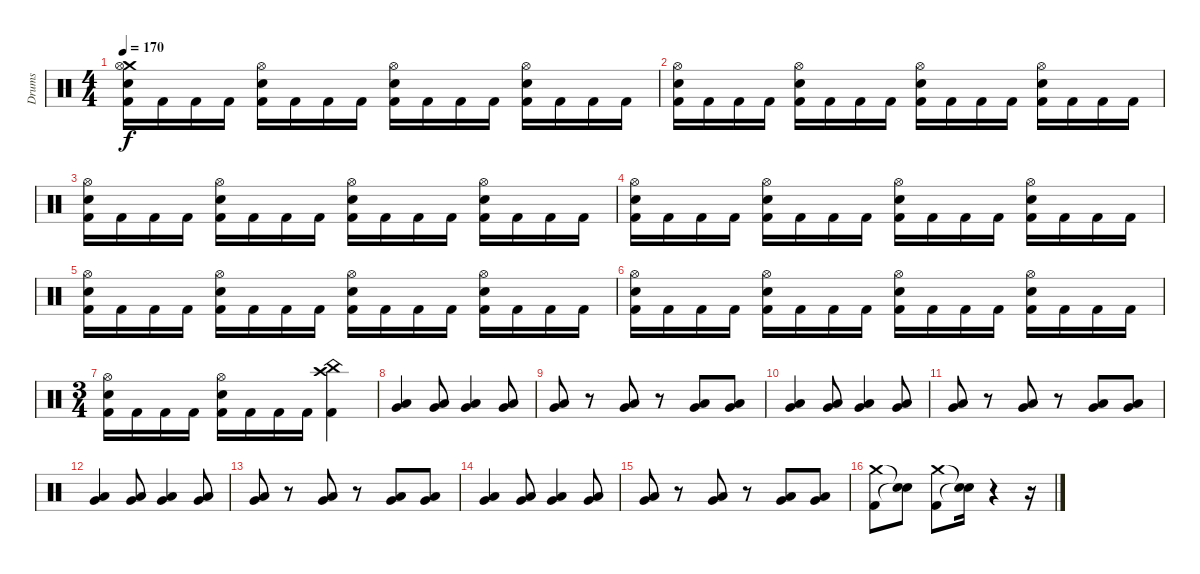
\track ("Drums" "Drums") {instrument percussion}
\staff {score}
\articulation defaults
\ts (4 4)
\tempo 170
\clef neutral
\ks c
("Crash medium (hit)" "Hi-Hat (open)" "Electric Snare (hit)" "Kick (hit) 2").16{dy f} "Kick (hit) 2".16 "Kick (hit) 2".16 "Kick (hit) 2".16 ("Hi-Hat (open)" "Electric Snare (hit)" "Kick (hit) 2").16 "Kick (hit) 2".16 "Kick (hit) 2".16 "Kick (hit) 2".16 ("Hi-Hat (open)" "Electric Snare (hit)" "Kick (hit) 2").16 "Kick (hit) 2".16 "Kick (hit) 2".16 "Kick (hit) 2".16 ("Hi-Hat (open)" "Electric Snare (hit)" "Kick (hit) 2").16 "Kick (hit) 2".16 "Kick (hit) 2".16 "Kick (hit) 2".16 |
("Hi-Hat (open)" "Electric Snare (hit)" "Kick (hit) 2").16 "Kick (hit) 2".16 "Kick (hit) 2".16 "Kick (hit) 2".16 ("Hi-Hat (open)" "Electric Snare (hit)" "Kick (hit) 2").16 "Kick (hit) 2".16 "Kick (hit) 2".16 "Kick (hit) 2".16 ("Hi-Hat (open)" "Electric Snare (hit)" "Kick (hit) 2").16 "Kick (hit) 2".16 "Kick (hit) 2".16 "Kick (hit) 2".16 ("Hi-Hat (open)" "Electric Snare (hit)" "Kick (hit) 2").16 "Kick (hit) 2".16 "Kick (hit) 2".16 "Kick (hit) 2".16 |
("Hi-Hat (open)" "Electric Snare (hit)" "Kick (hit) 2").16 "Kick (hit) 2".16 "Kick (hit) 2".16 "Kick (hit) 2".16 ("Hi-Hat (open)" "Electric Snare (hit)" "Kick (hit) 2").16 "Kick (hit) 2".16 "Kick (hit) 2".16 "Kick (hit) 2".16 ("Hi-Hat (open)" "Electric Snare (hit)" "Kick (hit) 2").16 "Kick (hit) 2".16 "Kick (hit) 2".16 "Kick (hit) 2".16 ("Hi-Hat (open)" "Electric Snare (hit)" "Kick (hit) 2").16 "Kick (hit) 2".16 "Kick (hit) 2".16 "Kick (hit) 2".16 |
("Hi-Hat (open)" "Electric Snare (hit)" "Kick (hit) 2").16 "Kick (hit) 2".16 "Kick (hit) 2".16 "Kick (hit) 2".16 ("Hi-Hat (open)" "Electric Snare (hit)" "Kick (hit) 2").16 "Kick (hit) 2".16 "Kick (hit) 2".16 "Kick (hit) 2".16 ("Hi-Hat (open)" "Electric Snare (hit)" "Kick (hit) 2").16 "Kick (hit) 2".16 "Kick (hit) 2".16 "Kick (hit) 2".16 ("Hi-Hat (open)" "Electric Snare (hit)" "Kick (hit) 2").16 "Kick (hit) 2".16 "Kick (hit) 2".16 "Kick (hit) 2".16 |
("Hi-Hat (open)" "Electric Snare (hit)" "Kick (hit) 2").16 "Kick (hit) 2".16 "Kick (hit) 2".16 "Kick (hit) 2".16 ("Hi-Hat (open)" "Electric Snare (hit)" "Kick (hit) 2").16 "Kick (hit) 2".16 "Kick (hit) 2".16 "Kick (hit) 2".16 ("Hi-Hat (open)" "Electric Snare (hit)" "Kick (hit) 2").16 "Kick (hit) 2".16 "Kick (hit) 2".16 "Kick (hit) 2".16 ("Hi-Hat (open)" "Electric Snare (hit)" "Kick (hit) 2").16 "Kick (hit) 2".16 "Kick (hit) 2".16 "Kick (hit) 2".16 |
("Hi-Hat (open)" "Electric Snare (hit)" "Kick (hit) 2").16 "Kick (hit) 2".16 "Kick (hit) 2".16 "Kick (hit) 2".16 ("Hi-Hat (open)" "Electric Snare (hit)" "Kick (hit) 2").16 "Kick (hit) 2".16 "Kick (hit) 2".16 "Kick (hit) 2".16 ("Hi-Hat (open)" "Electric Snare (hit)" "Kick (hit) 2").16 "Kick (hit) 2".16 "Kick (hit) 2".16 "Kick (hit) 2".16 ("Hi-Hat (open)" "Electric Snare (hit)" "Kick (hit) 2").16 "Kick (hit) 2".16 "Kick (hit) 2".16 "Kick (hit) 2".16 |
\ts (3 4)
("Hi-Hat (open)" "Electric Snare (hit)" "Kick (hit) 2").16 "Kick (hit) 2".16 "Kick (hit) 2".16 "Kick (hit) 2".16 ("Hi-Hat (open)" "Electric Snare (hit)" "Kick (hit) 2").16 "Kick (hit) 2".16 "Kick (hit) 2".16 "Kick (hit) 2".16 ("China (hit)" "Crash high (hit)" "Kick (hit) 2").4 |
("Low Floor Tom (hit)" "Very Low Tom (hit)").4 ("Very Low Tom (hit)" "Low Tom (hit)").8 ("Low Floor Tom (hit)" "Very Low Tom (hit)").4 ("Very Low Tom (hit)" "Low Tom (hit)").8 |
("Low Tom (hit)" "Very Low Tom (hit)").8 r.8 ("Low Tom (hit)" "Very Low Tom (hit)").8 r.8 ("Low Tom (hit)" "Very Low Tom (hit)").8 ("Low Tom (hit)" "Very Low Tom (hit)").8 |
("Low Floor Tom (hit)" "Very Low Tom (hit)").4 ("Very Low Tom (hit)" "Low Tom (hit)").8 ("Low Floor Tom (hit)" "Very Low Tom (hit)").4 ("Very Low Tom (hit)" "Low Tom (hit)").8 |
("Low Tom (hit)" "Very Low Tom (hit)").8 r.8 ("Low Tom (hit)" "Very Low Tom (hit)").8 r.8 ("Low Tom (hit)" "Very Low Tom (hit)").8 ("Low Tom (hit)" "Very Low Tom (hit)").8 |
("Low Floor Tom (hit)" "Very Low Tom (hit)").4 ("Very Low Tom (hit)" "Low Tom (hit)").8 ("Low Floor Tom (hit)" "Very Low Tom (hit)").4 ("Very Low Tom (hit)" "Low Tom (hit)").8 |
("Low Tom (hit)" "Very Low Tom (hit)").8 r.8 ("Low Tom (hit)" "Very Low Tom (hit)").8 r.8 ("Low Tom (hit)" "Very Low Tom (hit)").8 ("Low Tom (hit)" "Very Low Tom (hit)").8 |
("Low Floor Tom (hit)" "Very Low Tom (hit)").4 ("Very Low Tom (hit)" "Low Tom (hit)").8 ("Low Floor Tom (hit)" "Very Low Tom (hit)").4 ("Very Low Tom (hit)" "Low Tom (hit)").8 |
("Low Tom (hit)" "Very Low Tom (hit)").8 r.8 ("Low Tom (hit)" "Very Low Tom (hit)").8 r.8 ("Low Tom (hit)" "Very Low Tom (hit)").8 ("Low Tom (hit)" "Very Low Tom (hit)").8 |
("Crash medium (hit)" "Kick (hit) 2").8 ("Snare (hit)"{t} "Snare (hit)"{t}).8 ("Crash medium (hit)" "Kick (hit) 2").8 ("Snare (hit)"{t} "Snare (hit)"{t}).16 r.4 r.16
